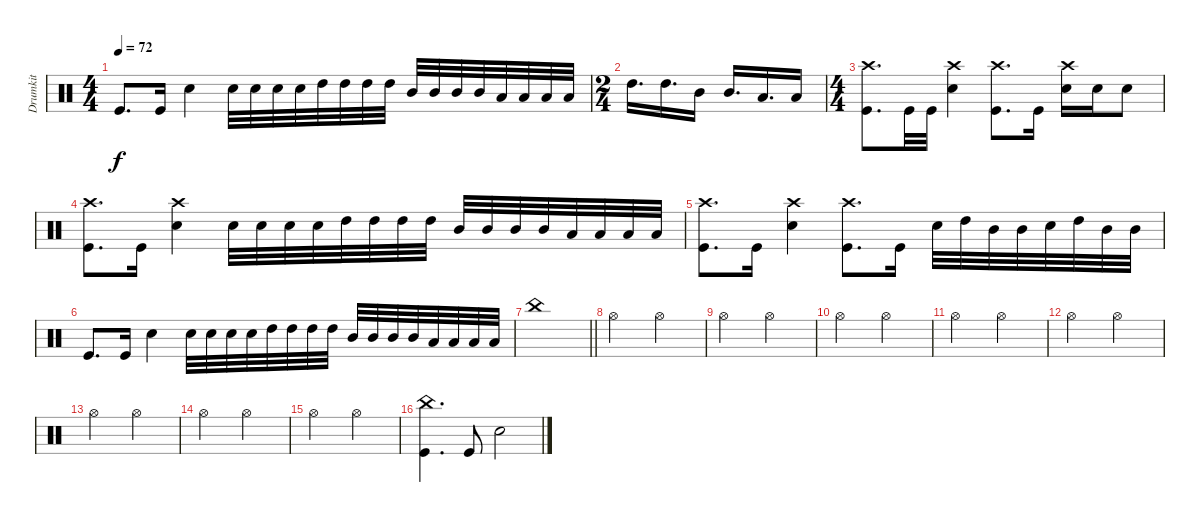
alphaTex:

\track ("Drumkit" "Drumkit") {instrument percussion}
\staff {score}
\articulation defaults
\ts (4 4)
\tempo 72
\clef neutral
\ks c "Kick (hit)".8{d dy f} "Kick (hit)".16 "Snare (hit) 2".4 "Snare (hit) 2".32 "Snare (hit) 2".32 "Snare (hit) 2".32 "Snare (hit) 2".32 "High Tom (hit)".32 "High Tom (hit)".32 "High Tom (hit)".32 "High Tom (hit)".32 "Mid Tom (hit)".32 "Mid Tom (hit)".32 "Mid Tom (hit)".32 "Mid Tom (hit)".32 "Low Floor Tom (hit)".32 "Low Floor Tom (hit)".32 "Low Floor Tom (hit)".32 "Low Floor Tom (hit)".32
|
\ts (2 4)
"High Tom (hit)".16{d} "High Tom (hit)".16{d} "Mid Tom (hit)".16 "Mid Tom (hit)".16{d} "Low Floor Tom (hit)".16{d} "Low Floor Tom (hit)".16 |
\ts (4 4)
("Kick (hit)" "Crash high (hit)").8{d} "Kick (hit)".32 "Kick (hit)".32 ("Snare (hit) 2" "Crash high (hit)").4 ("Kick (hit)" "Crash high (hit)").8{d} "Kick (hit)".16 ("Snare (hit) 2" "Crash high (hit)").16 "Snare (hit) 2".16 "Snare (hit) 2".8 |
("Kick (hit)" "Crash high (hit)").8{d} "Kick (hit)".16 ("Snare (hit) 2" "Crash high (hit)").4 "Snare (hit) 2".32 "Snare (hit) 2".32 "Snare (hit) 2".32 "Snare (hit) 2".32 "High Tom (hit)".32 "High Tom (hit)".32 "High Tom (hit)".32 "High Tom (hit)".32 "Mid Tom (hit)".32 "Mid Tom (hit)".32 "Mid Tom (hit)".32 "Mid Tom (hit)".32 "Low Floor Tom (hit)".32 "Low Floor Tom (hit)".32 "Low Floor Tom (hit)".32 "Low Floor Tom (hit)".32 |
("Kick (hit)" "Crash high (hit)").8{d} "Kick (hit)".16 ("Snare (hit) 2" "Crash high (hit)").4 ("Kick (hit)" "Crash high (hit)").8{d} "Kick (hit)".16 "Snare (hit) 2".32 "High Tom (hit)".32 "Mid Tom (hit)".32 "Mid Tom (hit)".32 "Snare (hit) 2".32 "High Tom (hit)".32 "Mid Tom (hit)".32 "Mid Tom (hit)".32 |
"Kick (hit)".8{d} "Kick (hit)".16 "Snare (hit) 2".4 "Snare (hit) 2".32 "Snare (hit) 2".32 "Snare (hit) 2".32 "Snare (hit) 2".32 "High Tom (hit)".32 "High Tom (hit)".32 "High Tom (hit)".32 "High Tom (hit)".32 "Mid Tom (hit)".32 "Mid Tom (hit)".32 "Mid Tom (hit)".32 "Mid Tom (hit)".32 "Low Floor Tom (hit)".32 "Low Floor Tom (hit)".32 "Low Floor Tom (hit)".32 "Low Floor Tom (hit)".32 |
\barLineRight lightlight "China (hit)".1
|
"Hi-Hat (open)".2 "Hi-Hat (open)".2 |
"Hi-Hat (open)".2 "Hi-Hat (open)".2 |
"Hi-Hat (open)".2 "Hi-Hat (open)".2 |
"Hi-Hat (open)".2 "Hi-Hat (open)".2 |
"Hi-Hat (open)".2 "Hi-Hat (open)".2 |
"Hi-Hat (open)".2 "Hi-Hat (open)".2 |
"Hi-Hat (open)".2 "Hi-Hat (open)".2 |
"Hi-Hat (open)".2 "Hi-Hat (open)".2 |
("Kick (hit)" "China (hit)").4{d} "Kick (hit)".8 "Snare (hit) 2".2
